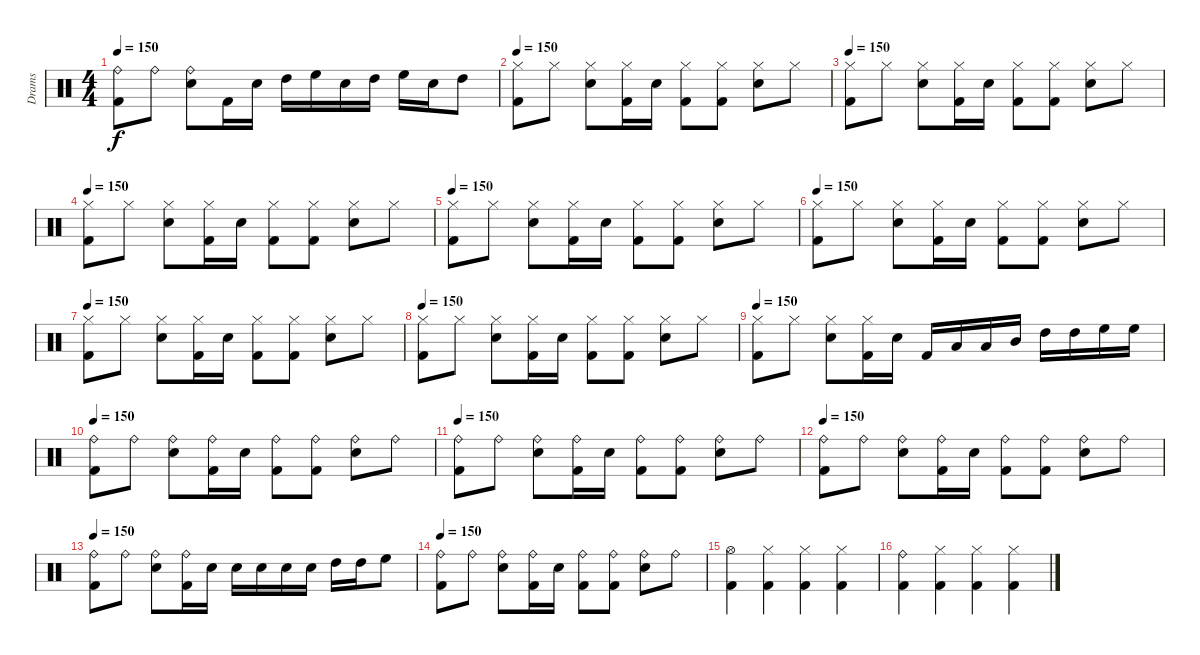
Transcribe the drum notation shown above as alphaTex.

\track ("Drams" "Drams") {instrument percussion}
\staff {score}
\articulation defaults
\ts (4 4)
\tempo 150
\clef neutral
\ks aminor
("Kick (hit) 2" "Ride (bell)").8{dy f} "Ride (bell)".8 ("Electric Snare (hit)" "Ride (bell)").8 "Kick (hit) 2".16 "Electric Snare (hit)".16 "High Tom (hit)".16 "High Floor Tom (hit)".16 "Electric Snare (hit)".16 "High Tom (hit)".16 "High Floor Tom (hit)".16 "Electric Snare (hit)".16 "High Tom (hit)".8 |
\tempo 150
("Kick (hit) 2" "Hi-Hat (closed)").8 "Hi-Hat (closed)".8 ("Electric Snare (hit)" "Hi-Hat (closed)").8 ("Kick (hit) 2" "Hi-Hat (closed)").16 "Electric Snare (hit)".16 ("Kick (hit) 2" "Hi-Hat (closed)").8 ("Kick (hit) 2" "Hi-Hat (closed)").8 ("Electric Snare (hit)" "Hi-Hat (closed)").8 "Hi-Hat (closed)".8 |
\tempo 150
("Kick (hit) 2" "Hi-Hat (closed)").8 "Hi-Hat (closed)".8 ("Electric Snare (hit)" "Hi-Hat (closed)").8 ("Kick (hit) 2" "Hi-Hat (closed)").16 "Electric Snare (hit)".16 ("Kick (hit) 2" "Hi-Hat (closed)").8 ("Kick (hit) 2" "Hi-Hat (closed)").8 ("Electric Snare (hit)" "Hi-Hat (closed)").8 "Hi-Hat (closed)".8 |
\tempo 150
("Kick (hit) 2" "Hi-Hat (closed)").8 "Hi-Hat (closed)".8 ("Electric Snare (hit)" "Hi-Hat (closed)").8 ("Kick (hit) 2" "Hi-Hat (closed)").16 "Electric Snare (hit)".16 ("Kick (hit) 2" "Hi-Hat (closed)").8 ("Kick (hit) 2" "Hi-Hat (closed)").8 ("Electric Snare (hit)" "Hi-Hat (closed)").8 "Hi-Hat (closed)".8 |
\tempo 150
("Kick (hit) 2" "Hi-Hat (closed)").8 "Hi-Hat (closed)".8 ("Electric Snare (hit)" "Hi-Hat (closed)").8 ("Kick (hit) 2" "Hi-Hat (closed)").16 "Electric Snare (hit)".16 ("Kick (hit) 2" "Hi-Hat (closed)").8 ("Kick (hit) 2" "Hi-Hat (closed)").8 ("Electric Snare (hit)" "Hi-Hat (closed)").8 "Hi-Hat (closed)".8 |
\tempo 150
("Kick (hit) 2" "Hi-Hat (closed)").8 "Hi-Hat (closed)".8 ("Electric Snare (hit)" "Hi-Hat (closed)").8 ("Kick (hit) 2" "Hi-Hat (closed)").16 "Electric Snare (hit)".16 ("Kick (hit) 2" "Hi-Hat (closed)").8 ("Kick (hit) 2" "Hi-Hat (closed)").8 ("Electric Snare (hit)" "Hi-Hat (closed)").8 "Hi-Hat (closed)".8 |
\tempo 150
("Kick (hit) 2" "Hi-Hat (closed)").8 "Hi-Hat (closed)".8 ("Electric Snare (hit)" "Hi-Hat (closed)").8 ("Kick (hit) 2" "Hi-Hat (closed)").16 "Electric Snare (hit)".16 ("Kick (hit) 2" "Hi-Hat (closed)").8 ("Kick (hit) 2" "Hi-Hat (closed)").8 ("Electric Snare (hit)" "Hi-Hat (closed)").8 "Hi-Hat (closed)".8 |
\tempo 150
("Kick (hit) 2" "Hi-Hat (closed)").8 "Hi-Hat (closed)".8 ("Electric Snare (hit)" "Hi-Hat (closed)").8 ("Kick (hit) 2" "Hi-Hat (closed)").16 "Electric Snare (hit)".16 ("Kick (hit) 2" "Hi-Hat (closed)").8 ("Kick (hit) 2" "Hi-Hat (closed)").8 ("Electric Snare (hit)" "Hi-Hat (closed)").8 "Hi-Hat (closed)".8 |
\tempo 150
("Kick (hit) 2" "Hi-Hat (closed)").8 "Hi-Hat (closed)".8 ("Electric Snare (hit)" "Hi-Hat (closed)").8 ("Kick (hit) 2" "Hi-Hat (closed)").16 "Electric Snare (hit)".16 "Kick (hit) 2".16 "Low Tom (hit)".16 "Low Tom (hit)".16 "Mid Tom (hit)".16 "High Tom (hit)".16 "High Tom (hit)".16 "High Floor Tom (hit)".16 "High Floor Tom (hit)".16 |
\tempo 150
("Kick (hit) 2" "Ride (bell)").8 "Ride (bell)".8 ("Electric Snare (hit)" "Ride (bell)").8 ("Kick (hit) 2" "Ride (bell)").16 "Electric Snare (hit)".16 ("Kick (hit) 2" "Ride (bell)").8 ("Kick (hit) 2" "Ride (bell)").8 ("Electric Snare (hit)" "Ride (bell)").8 "Ride (bell)".8 |
\tempo 150
("Kick (hit) 2" "Ride (bell)").8 "Ride (bell)".8 ("Electric Snare (hit)" "Ride (bell)").8 ("Kick (hit) 2" "Ride (bell)").16 "Electric Snare (hit)".16 ("Kick (hit) 2" "Ride (bell)").8 ("Kick (hit) 2" "Ride (bell)").8 ("Electric Snare (hit)" "Ride (bell)").8 "Ride (bell)".8 |
\tempo 150
("Kick (hit) 2" "Ride (bell)").8 "Ride (bell)".8 ("Electric Snare (hit)" "Ride (bell)").8 ("Kick (hit) 2" "Ride (bell)").16 "Electric Snare (hit)".16 ("Kick (hit) 2" "Ride (bell)").8 ("Kick (hit) 2" "Ride (bell)").8 ("Electric Snare (hit)" "Ride (bell)").8 "Ride (bell)".8 |
\tempo 150
("Kick (hit) 2" "Ride (bell)").8 "Ride (bell)".8 ("Electric Snare (hit)" "Ride (bell)").8 ("Kick (hit) 2" "Ride (bell)").16 "Electric Snare (hit)".16 "Electric Snare (hit)".16 "Electric Snare (hit)".16 "Electric Snare (hit)".16 "Electric Snare (hit)".16 "High Tom (hit)".16 "High Tom (hit)".16 "High Floor Tom (hit)".8 |
\tempo 150
("Kick (hit) 2" "Ride (bell)").8 "Ride (bell)".8 ("Electric Snare (hit)" "Ride (bell)").8 ("Kick (hit) 2" "Ride (bell)").16 "Electric Snare (hit)".16 ("Kick (hit) 2" "Ride (bell)").8 ("Kick (hit) 2" "Ride (bell)").8 ("Electric Snare (hit)" "Ride (bell)").8 "Ride (bell)".8 |
("Kick (hit) 2" "Hi-Hat (open)").4 ("Kick (hit) 2" "Hi-Hat (closed)").4 ("Kick (hit) 2" "Hi-Hat (closed)").4 ("Kick (hit) 2" "Hi-Hat (closed)").4 |
("Kick (hit) 2" "Ride (bell)").4 ("Kick (hit) 2" "Hi-Hat (closed)").4 ("Kick (hit) 2" "Hi-Hat (closed)").4 ("Kick (hit) 2" "Hi-Hat (closed)").4
